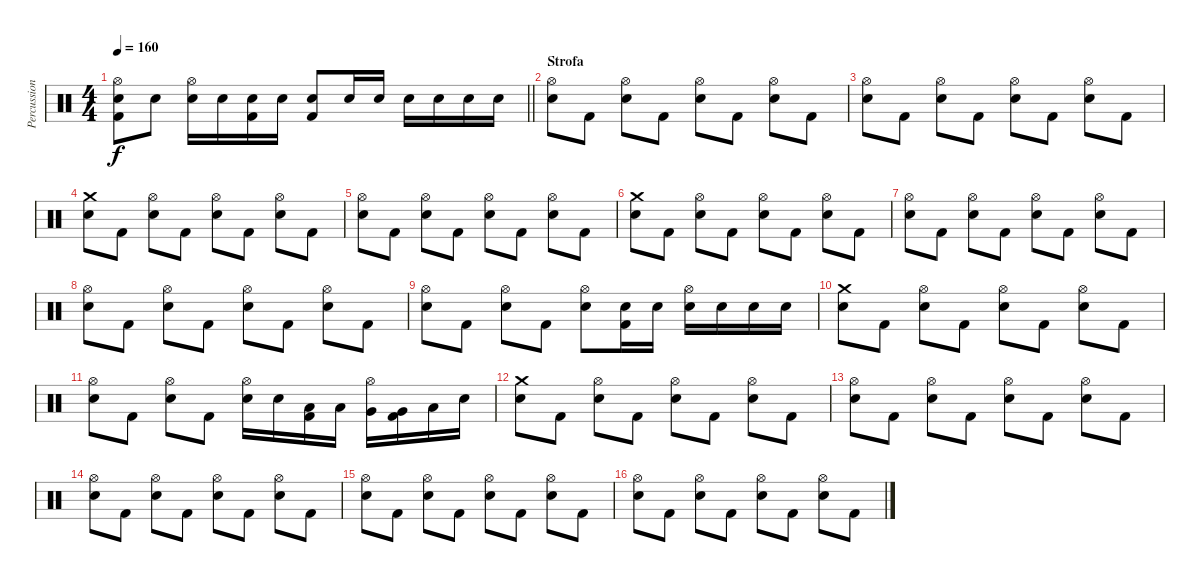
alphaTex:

\track ("Percussioni" "Percussion") {instrument percussion}
\staff {score}
\articulation defaults
\ts (4 4)
\tempo 160
\clef neutral
\barLineRight lightlight
\ks c
("Hi-Hat (open)" "Electric Snare (hit)" "Kick (hit) 2").8{dy f} "Electric Snare (hit)".8 ("Hi-Hat (open)" "Electric Snare (hit)").16 "Electric Snare (hit)".16 ("Electric Snare (hit)" "Kick (hit) 2").16 "Electric Snare (hit)".16 ("Electric Snare (hit)" "Kick (hit) 2").8 "Electric Snare (hit)".16 "Electric Snare (hit)".16 "Electric Snare (hit)".16 "Electric Snare (hit)".16 "Electric Snare (hit)".16 "Electric Snare (hit)".16 |
\section ("" "Strofa")
("Hi-Hat (open)" "Electric Snare (hit)").8 "Kick (hit) 2".8 ("Hi-Hat (open)" "Electric Snare (hit)").8 "Kick (hit) 2".8 ("Hi-Hat (open)" "Electric Snare (hit)").8 "Kick (hit) 2".8 ("Hi-Hat (open)" "Electric Snare (hit)").8 "Kick (hit) 2".8 |
("Hi-Hat (open)" "Electric Snare (hit)").8 "Kick (hit) 2".8 ("Hi-Hat (open)" "Electric Snare (hit)").8 "Kick (hit) 2".8 ("Hi-Hat (open)" "Electric Snare (hit)").8 "Kick (hit) 2".8 ("Hi-Hat (open)" "Electric Snare (hit)").8 "Kick (hit) 2".8 |
("Crash medium (hit)" "Electric Snare (hit)").8 "Kick (hit) 2".8 ("Hi-Hat (open)" "Electric Snare (hit)").8 "Kick (hit) 2".8 ("Hi-Hat (open)" "Electric Snare (hit)").8 "Kick (hit) 2".8 ("Hi-Hat (open)" "Electric Snare (hit)").8 "Kick (hit) 2".8 |
("Hi-Hat (open)" "Electric Snare (hit)").8 "Kick (hit) 2".8 ("Hi-Hat (open)" "Electric Snare (hit)").8 "Kick (hit) 2".8 ("Hi-Hat (open)" "Electric Snare (hit)").8 "Kick (hit) 2".8 ("Hi-Hat (open)" "Electric Snare (hit)").8 "Kick (hit) 2".8 |
("Crash medium (hit)" "Electric Snare (hit)").8 "Kick (hit) 2".8 ("Hi-Hat (open)" "Electric Snare (hit)").8 "Kick (hit) 2".8 ("Hi-Hat (open)" "Electric Snare (hit)").8 "Kick (hit) 2".8 ("Hi-Hat (open)" "Electric Snare (hit)").8 "Kick (hit) 2".8 |
("Hi-Hat (open)" "Electric Snare (hit)").8 "Kick (hit) 2".8 ("Hi-Hat (open)" "Electric Snare (hit)").8 "Kick (hit) 2".8 ("Hi-Hat (open)" "Electric Snare (hit)").8 "Kick (hit) 2".8 ("Hi-Hat (open)" "Electric Snare (hit)").8 "Kick (hit) 2".8 |
("Hi-Hat (open)" "Electric Snare (hit)").8 "Kick (hit) 2".8 ("Hi-Hat (open)" "Electric Snare (hit)").8 "Kick (hit) 2".8 ("Hi-Hat (open)" "Electric Snare (hit)").8 "Kick (hit) 2".8 ("Hi-Hat (open)" "Electric Snare (hit)").8 "Kick (hit) 2".8 |
("Hi-Hat (open)" "Electric Snare (hit)").8 "Kick (hit) 2".8 ("Hi-Hat (open)" "Electric Snare (hit)").8 "Kick (hit) 2".8 ("Hi-Hat (open)" "Electric Snare (hit)").8 ("Electric Snare (hit)" "Kick (hit) 2").16 "Electric Snare (hit)".16 ("Hi-Hat (open)" "Electric Snare (hit)").16 "Electric Snare (hit)".16 "Electric Snare (hit)".16 "Electric Snare (hit)".16 |
("Crash medium (hit)" "Electric Snare (hit)").8 "Kick (hit) 2".8 ("Hi-Hat (open)" "Electric Snare (hit)").8 "Kick (hit) 2".8 ("Hi-Hat (open)" "Electric Snare (hit)").8 "Kick (hit) 2".8 ("Hi-Hat (open)" "Electric Snare (hit)").8 "Kick (hit) 2".8 |
("Hi-Hat (open)" "Electric Snare (hit)").8 "Kick (hit) 2".8 ("Hi-Hat (open)" "Electric Snare (hit)").8 "Kick (hit) 2".8 ("Hi-Hat (open)" "Electric Snare (hit)").16 "Electric Snare (hit)".16 ("Low Tom (hit)" "Kick (hit) 2").16 "Low Tom (hit)".16 ("Hi-Hat (open)" "Very Low Tom (hit)").16 ("Very Low Tom (hit)" "Kick (hit) 2").16 "Low Floor Tom (hit)".16 "Snare (hit)".16 |
("Crash medium (hit)" "Electric Snare (hit)").8 "Kick (hit) 2".8 ("Hi-Hat (open)" "Electric Snare (hit)").8 "Kick (hit) 2".8 ("Hi-Hat (open)" "Electric Snare (hit)").8 "Kick (hit) 2".8 ("Hi-Hat (open)" "Electric Snare (hit)").8 "Kick (hit) 2".8 |
("Hi-Hat (open)" "Electric Snare (hit)").8 "Kick (hit) 2".8 ("Hi-Hat (open)" "Electric Snare (hit)").8 "Kick (hit) 2".8 ("Hi-Hat (open)" "Electric Snare (hit)").8 "Kick (hit) 2".8 ("Hi-Hat (open)" "Electric Snare (hit)").8 "Kick (hit) 2".8 |
("Hi-Hat (open)" "Electric Snare (hit)").8 "Kick (hit) 2".8 ("Hi-Hat (open)" "Electric Snare (hit)").8 "Kick (hit) 2".8 ("Hi-Hat (open)" "Electric Snare (hit)").8 "Kick (hit) 2".8 ("Hi-Hat (open)" "Electric Snare (hit)").8 "Kick (hit) 2".8 |
("Hi-Hat (open)" "Electric Snare (hit)").8 "Kick (hit) 2".8 ("Hi-Hat (open)" "Electric Snare (hit)").8 "Kick (hit) 2".8 ("Hi-Hat (open)" "Electric Snare (hit)").8 "Kick (hit) 2".8 ("Hi-Hat (open)" "Electric Snare (hit)").8 "Kick (hit) 2".8 |
("Hi-Hat (open)" "Electric Snare (hit)").8 "Kick (hit) 2".8 ("Hi-Hat (open)" "Electric Snare (hit)").8 "Kick (hit) 2".8 ("Hi-Hat (open)" "Electric Snare (hit)").8 "Kick (hit) 2".8 ("Hi-Hat (open)" "Electric Snare (hit)").8 "Kick (hit) 2".8
